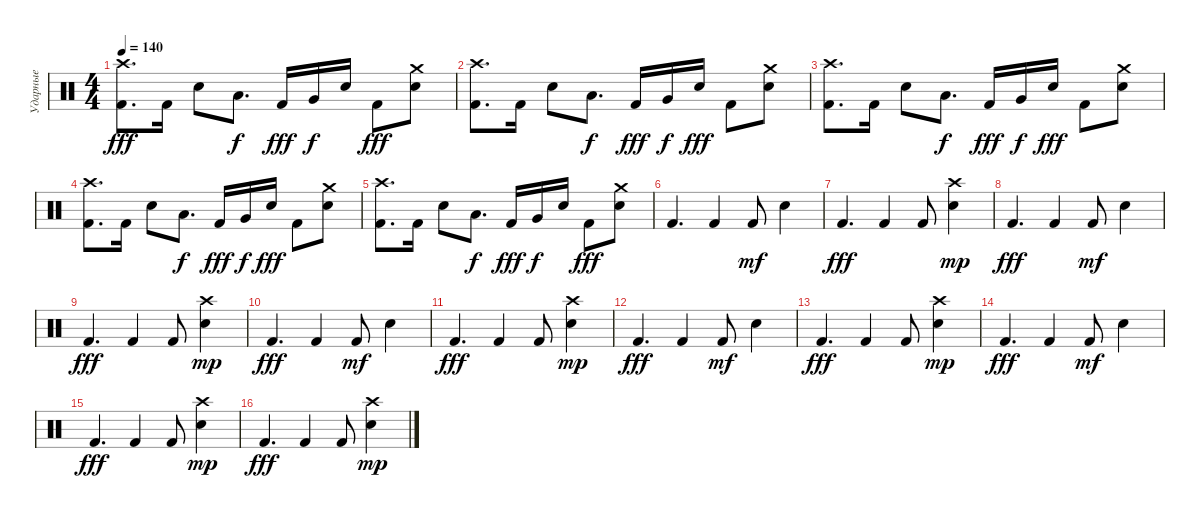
\track ("Ударные" "Ударные") {instrument percussion}
\staff {score}
\articulation defaults
\ts (4 4)
\tempo 140
\clef neutral
\ks c
("Kick (hit) 2" "Crash high (hit)").8{d dy fff} "Kick (hit) 2".16 "Electric Snare (hit)".8 "Low Floor Tom (hit)".8{d dy f} "Kick (hit) 2".16{dy fff} "Very Low Tom (hit)".16{dy f} "Electric Snare (hit)".16 "Kick (hit) 2".8{dy fff} ("Electric Snare (hit)" "Crash medium (hit)").8 |
("Kick (hit) 2" "Crash high (hit)").8{d} "Kick (hit) 2".16 "Electric Snare (hit)".8 "Low Floor Tom (hit)".8{d dy f} "Kick (hit) 2".16{dy fff} "Very Low Tom (hit)".16{dy f} "Electric Snare (hit)".16{dy fff} "Kick (hit) 2".8 ("Electric Snare (hit)" "Crash medium (hit)").8 |
("Kick (hit) 2" "Crash high (hit)").8{d} "Kick (hit) 2".16 "Electric Snare (hit)".8 "Low Floor Tom (hit)".8{d dy f} "Kick (hit) 2".16{dy fff} "Very Low Tom (hit)".16{dy f} "Electric Snare (hit)".16{dy fff} "Kick (hit) 2".8 ("Electric Snare (hit)" "Crash medium (hit)").8 |
("Kick (hit) 2" "Crash high (hit)").8{d} "Kick (hit) 2".16 "Electric Snare (hit)".8 "Low Floor Tom (hit)".8{d dy f} "Kick (hit) 2".16{dy fff} "Very Low Tom (hit)".16{dy f} "Electric Snare (hit)".16{dy fff} "Kick (hit) 2".8 ("Electric Snare (hit)" "Crash medium (hit)").8 |
("Kick (hit) 2" "Crash high (hit)").8{d} "Kick (hit) 2".16 "Electric Snare (hit)".8 "Low Floor Tom (hit)".8{d dy f} "Kick (hit) 2".16{dy fff} "Very Low Tom (hit)".16{dy f} "Electric Snare (hit)".16 "Kick (hit) 2".8{dy fff} ("Electric Snare (hit)" "Crash medium (hit)").8 |
"Kick (hit) 2".4{d} "Kick (hit) 2".4 "Kick (hit) 2".8{dy mf} "Electric Snare (hit)".4 |
"Kick (hit) 2".4{d dy fff} "Kick (hit) 2".4 "Kick (hit) 2".8 ("Electric Snare (hit)" "Crash high (hit)").4{dy mp} |
"Kick (hit) 2".4{d dy fff} "Kick (hit) 2".4 "Kick (hit) 2".8{dy mf} "Electric Snare (hit)".4 |
"Kick (hit) 2".4{d dy fff} "Kick (hit) 2".4 "Kick (hit) 2".8 ("Electric Snare (hit)" "Crash high (hit)").4{dy mp} |
"Kick (hit) 2".4{d dy fff} "Kick (hit) 2".4 "Kick (hit) 2".8{dy mf} "Electric Snare (hit)".4 |
"Kick (hit) 2".4{d dy fff} "Kick (hit) 2".4 "Kick (hit) 2".8 ("Electric Snare (hit)" "Crash high (hit)").4{dy mp} |
"Kick (hit) 2".4{d dy fff} "Kick (hit) 2".4 "Kick (hit) 2".8{dy mf} "Electric Snare (hit)".4 |
"Kick (hit) 2".4{d dy fff} "Kick (hit) 2".4 "Kick (hit) 2".8 ("Electric Snare (hit)" "Crash high (hit)").4{dy mp} |
"Kick (hit) 2".4{d dy fff} "Kick (hit) 2".4 "Kick (hit) 2".8{dy mf} "Electric Snare (hit)".4 |
"Kick (hit) 2".4{d dy fff} "Kick (hit) 2".4 "Kick (hit) 2".8 ("Electric Snare (hit)" "Crash high (hit)").4{dy mp} |
"Kick (hit) 2".4{d dy fff} "Kick (hit) 2".4 "Kick (hit) 2".8 ("Electric Snare (hit)" "Crash high (hit)").4{dy mp}
